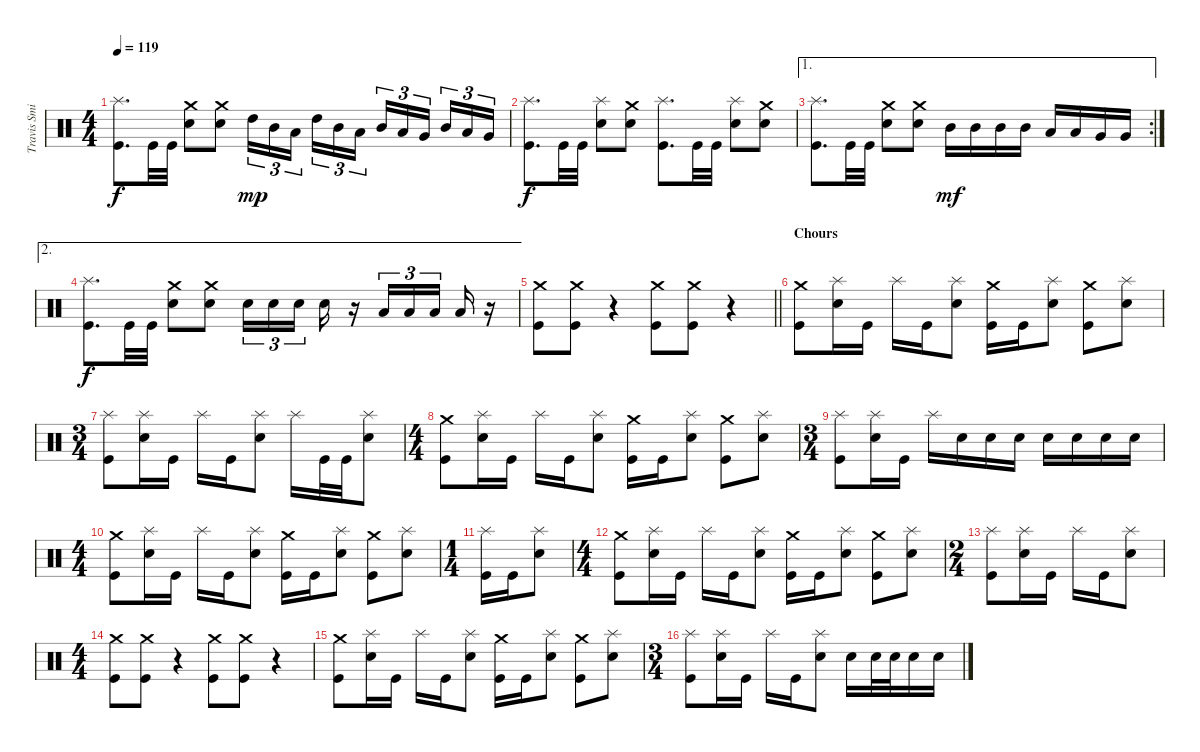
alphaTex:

\track ("Travis Smith (Drums)" "Travis Smi") {instrument percussion}
\staff {score}
\articulation defaults
\ts (4 4)
\tempo 119
\clef neutral
\ks c
("Splash (hit)" "Kick (hit)").8{d dy f} "Kick (hit)".32 "Kick (hit)".32 ("Crash medium (hit)" "Electric Snare (hit)").8 ("Crash medium (hit)" "Electric Snare (hit)").8 "High Tom (hit)".16{tu (3 2) dy mp} "Mid Tom (hit)".16{tu (3 2)} "Low Tom (hit)".16{tu (3 2) beam splitsecondary} "High Tom (hit)".16{tu (3 2)} "Mid Tom (hit)".16{tu (3 2)} "Low Tom (hit)".16{tu (3 2)} "Mid Tom (hit)".16{tu (3 2)} "Low Tom (hit)".16{tu (3 2)} "Very Low Tom (hit)".16{tu (3 2) beam splitsecondary} "Mid Tom (hit)".16{tu (3 2)} "Low Tom (hit)".16{tu (3 2)} "Very Low Tom (hit)".16{tu (3 2)} |
("Splash (hit)" "Kick (hit)").8{d dy f} "Kick (hit)".32 "Kick (hit)".32 ("Splash (hit)" "Electric Snare (hit)").8 ("Crash medium (hit)" "Electric Snare (hit)").8 ("Splash (hit)" "Kick (hit)").8{d} "Kick (hit)".32 "Kick (hit)".32 ("Splash (hit)" "Electric Snare (hit)").8 ("Crash medium (hit)" "Electric Snare (hit)").8 |
\ae 1
\rc 2
("Splash (hit)" "Kick (hit)").8{d} "Kick (hit)".32 "Kick (hit)".32 ("Crash medium (hit)" "Electric Snare (hit)").8 ("Crash medium (hit)" "Electric Snare (hit)").8 "Mid Tom (hit)".16{dy mf} "Mid Tom (hit)".16 "Mid Tom (hit)".16 "Mid Tom (hit)".16 "Low Tom (hit)".16 "Low Tom (hit)".16 "Very Low Tom (hit)".16 "Very Low Tom (hit)".16 |
\ae 2
("Splash (hit)" "Kick (hit)").8{d dy f} "Kick (hit)".32 "Kick (hit)".32 ("Crash medium (hit)" "Electric Snare (hit)").8 ("Crash medium (hit)" "Electric Snare (hit)").8 "Electric Snare (hit)".16{tu (3 2)} "Electric Snare (hit)".16{tu (3 2)} "Electric Snare (hit)".16{tu (3 2) beam splitsecondary} "Electric Snare (hit)".16 r.16 "Low Tom (hit)".16{tu (3 2)} "Low Tom (hit)".16{tu (3 2)} "Low Tom (hit)".16{tu (3 2) beam splitsecondary} "Low Tom (hit)".16 r.16 |
\barLineRight lightlight
("Crash medium (hit)" "Kick (hit)").8 ("Crash medium (hit)" "Kick (hit)").8 r.4 ("Crash medium (hit)" "Kick (hit)").8 ("Crash medium (hit)" "Kick (hit)").8 r.4 |
\section ("" "Chours")
("Crash medium (hit)" "Kick (hit)").8 ("Splash (hit)" "Electric Snare (hit)").16 "Kick (hit)".16 "Splash (hit)".16 "Kick (hit)".16 ("Splash (hit)" "Electric Snare (hit)").8 ("Crash medium (hit)" "Kick (hit)").16 "Kick (hit)".16 ("Splash (hit)" "Electric Snare (hit)").8 ("Crash medium (hit)" "Kick (hit)").8 ("Splash (hit)" "Electric Snare (hit)").8 |
\ts (3 4)
("Splash (hit)" "Kick (hit)").8 ("Splash (hit)" "Electric Snare (hit)").16 "Kick (hit)".16 "Splash (hit)".16 "Kick (hit)".16 ("Splash (hit)" "Electric Snare (hit)").8 "Splash (hit)".16 "Kick (hit)".32 "Kick (hit)".32 ("Splash (hit)" "Electric Snare (hit)").8 |
\ts (4 4)
("Crash medium (hit)" "Kick (hit)").8 ("Splash (hit)" "Electric Snare (hit)").16 "Kick (hit)".16 "Splash (hit)".16 "Kick (hit)".16 ("Splash (hit)" "Electric Snare (hit)").8 ("Crash medium (hit)" "Kick (hit)").16 "Kick (hit)".16 ("Splash (hit)" "Electric Snare (hit)").8 ("Crash medium (hit)" "Kick (hit)").8 ("Splash (hit)" "Electric Snare (hit)").8 |
\ts (3 4)
("Splash (hit)" "Kick (hit)").8 ("Splash (hit)" "Electric Snare (hit)").16 "Kick (hit)".16 "Splash (hit)".16 "Electric Snare (hit)".16 "Electric Snare (hit)".16 "Electric Snare (hit)".16 "Electric Snare (hit)".16 "Electric Snare (hit)".16 "Electric Snare (hit)".16 "Electric Snare (hit)".16 |
\ts (4 4)
("Crash medium (hit)" "Kick (hit)").8 ("Splash (hit)" "Electric Snare (hit)").16 "Kick (hit)".16 "Splash (hit)".16 "Kick (hit)".16 ("Splash (hit)" "Electric Snare (hit)").8 ("Crash medium (hit)" "Kick (hit)").16 "Kick (hit)".16 ("Splash (hit)" "Electric Snare (hit)").8 ("Crash medium (hit)" "Kick (hit)").8 ("Splash (hit)" "Electric Snare (hit)").8 |
\ts (1 4)
("Splash (hit)" "Kick (hit)").16 "Kick (hit)".16 ("Splash (hit)" "Electric Snare (hit)").8 |
\ts (4 4)
("Crash medium (hit)" "Kick (hit)").8 ("Splash (hit)" "Electric Snare (hit)").16 "Kick (hit)".16 "Splash (hit)".16 "Kick (hit)".16 ("Splash (hit)" "Electric Snare (hit)").8 ("Crash medium (hit)" "Kick (hit)").16 "Kick (hit)".16 ("Splash (hit)" "Electric Snare (hit)").8 ("Crash medium (hit)" "Kick (hit)").8 ("Splash (hit)" "Electric Snare (hit)").8 |
\ts (2 4)
("Splash (hit)" "Kick (hit)").8 ("Splash (hit)" "Electric Snare (hit)").16 "Kick (hit)".16 "Splash (hit)".16 "Kick (hit)".16 ("Splash (hit)" "Electric Snare (hit)").8 |
\ts (4 4)
("Crash medium (hit)" "Kick (hit)").8 ("Crash medium (hit)" "Kick (hit)").8 r.4 ("Crash medium (hit)" "Kick (hit)").8 ("Crash medium (hit)" "Kick (hit)").8 r.4 |
("Crash medium (hit)" "Kick (hit)").8 ("Splash (hit)" "Electric Snare (hit)").16 "Kick (hit)".16 "Splash (hit)".16 "Kick (hit)".16 ("Splash (hit)" "Electric Snare (hit)").8 ("Crash medium (hit)" "Kick (hit)").16 "Kick (hit)".16 ("Splash (hit)" "Electric Snare (hit)").8 ("Crash medium (hit)" "Kick (hit)").8 ("Splash (hit)" "Electric Snare (hit)").8 |
\ts (3 4)
("Splash (hit)" "Kick (hit)").8 ("Splash (hit)" "Electric Snare (hit)").16 "Kick (hit)".16 "Splash (hit)".16 "Kick (hit)".16 ("Splash (hit)" "Electric Snare (hit)").8 "Electric Snare (hit)".16 "Electric Snare (hit)".32 "Electric Snare (hit)".32 "Electric Snare (hit)".16 "Electric Snare (hit)".16
